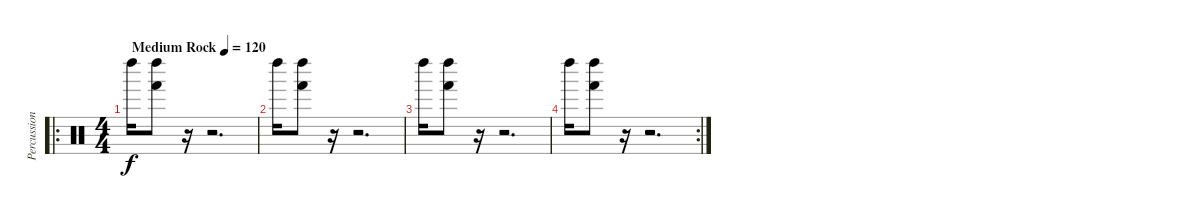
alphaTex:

\track ("Percussion" "Percussion") {instrument percussion}
\staff {score}
\articulation defaults
\ro
\ts (4 4)
\tempo (120 "Medium Rock")
\clef neutral
\ks c "Left Maraca (hit)".16{dy f}
("Left Maraca (hit)" "Hand (hit)").8 r.16 r.2{d} |
"Left Maraca (hit)".16 ("Left Maraca (hit)" "Hand (hit)").8 r.16 r.2{d} |
"Left Maraca (hit)".16 ("Left Maraca (hit)" "Hand (hit)").8 r.16 r.2{d} |
\rc 2 "Left Maraca (hit)".16
("Left Maraca (hit)" "Hand (hit)").8 r.16 r.2{d}
